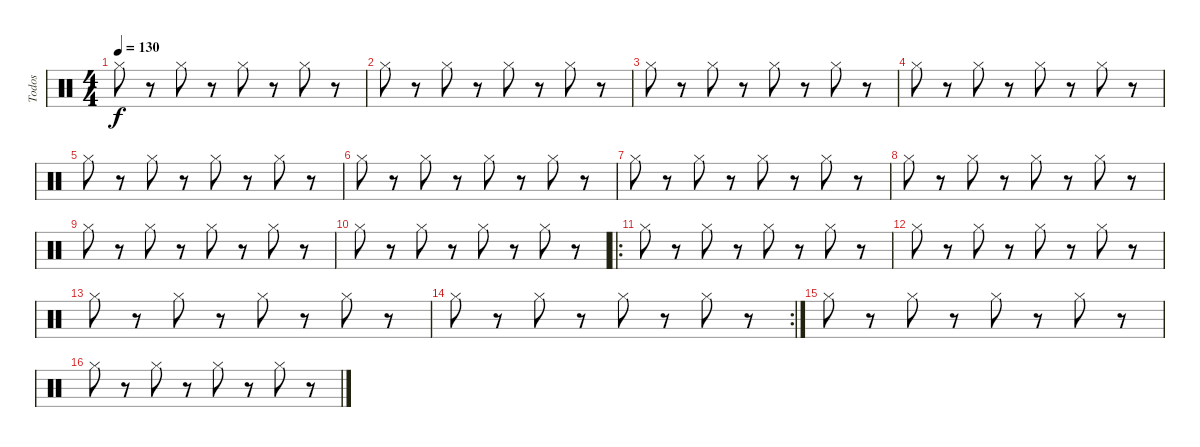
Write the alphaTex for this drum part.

\track ("Todos" "Todos") {instrument percussion}
\staff {score}
\articulation defaults
\ts (4 4)
\tempo 130
\clef neutral
\ks c "Hi-Hat (closed)".8{dy f}
r.8 "Hi-Hat (closed)".8 r.8 "Hi-Hat (closed)".8 r.8 "Hi-Hat (closed)".8 r.8 |
"Hi-Hat (closed)".8 r.8 "Hi-Hat (closed)".8 r.8 "Hi-Hat (closed)".8 r.8 "Hi-Hat (closed)".8 r.8 |
"Hi-Hat (closed)".8 r.8 "Hi-Hat (closed)".8 r.8 "Hi-Hat (closed)".8 r.8 "Hi-Hat (closed)".8 r.8 |
"Hi-Hat (closed)".8 r.8 "Hi-Hat (closed)".8 r.8 "Hi-Hat (closed)".8 r.8 "Hi-Hat (closed)".8 r.8 |
"Hi-Hat (closed)".8 r.8 "Hi-Hat (closed)".8 r.8 "Hi-Hat (closed)".8 r.8 "Hi-Hat (closed)".8 r.8 |
"Hi-Hat (closed)".8 r.8 "Hi-Hat (closed)".8 r.8 "Hi-Hat (closed)".8 r.8 "Hi-Hat (closed)".8 r.8 |
"Hi-Hat (closed)".8 r.8 "Hi-Hat (closed)".8 r.8 "Hi-Hat (closed)".8 r.8 "Hi-Hat (closed)".8 r.8 |
"Hi-Hat (closed)".8 r.8 "Hi-Hat (closed)".8 r.8 "Hi-Hat (closed)".8 r.8 "Hi-Hat (closed)".8 r.8 |
"Hi-Hat (closed)".8 r.8 "Hi-Hat (closed)".8 r.8 "Hi-Hat (closed)".8 r.8 "Hi-Hat (closed)".8 r.8 |
"Hi-Hat (closed)".8 r.8 "Hi-Hat (closed)".8 r.8 "Hi-Hat (closed)".8 r.8 "Hi-Hat (closed)".8 r.8 |
\ro "Hi-Hat (closed)".8
r.8 "Hi-Hat (closed)".8 r.8 "Hi-Hat (closed)".8 r.8 "Hi-Hat (closed)".8 r.8 |
"Hi-Hat (closed)".8 r.8 "Hi-Hat (closed)".8 r.8 "Hi-Hat (closed)".8 r.8 "Hi-Hat (closed)".8 r.8 |
"Hi-Hat (closed)".8 r.8 "Hi-Hat (closed)".8 r.8 "Hi-Hat (closed)".8 r.8 "Hi-Hat (closed)".8 r.8 |
\rc 2 "Hi-Hat (closed)".8
r.8 "Hi-Hat (closed)".8 r.8 "Hi-Hat (closed)".8 r.8 "Hi-Hat (closed)".8 r.8 |
"Hi-Hat (closed)".8 r.8 "Hi-Hat (closed)".8 r.8 "Hi-Hat (closed)".8 r.8 "Hi-Hat (closed)".8 r.8 |
"Hi-Hat (closed)".8 r.8 "Hi-Hat (closed)".8 r.8 "Hi-Hat (closed)".8 r.8 "Hi-Hat (closed)".8 r.8
